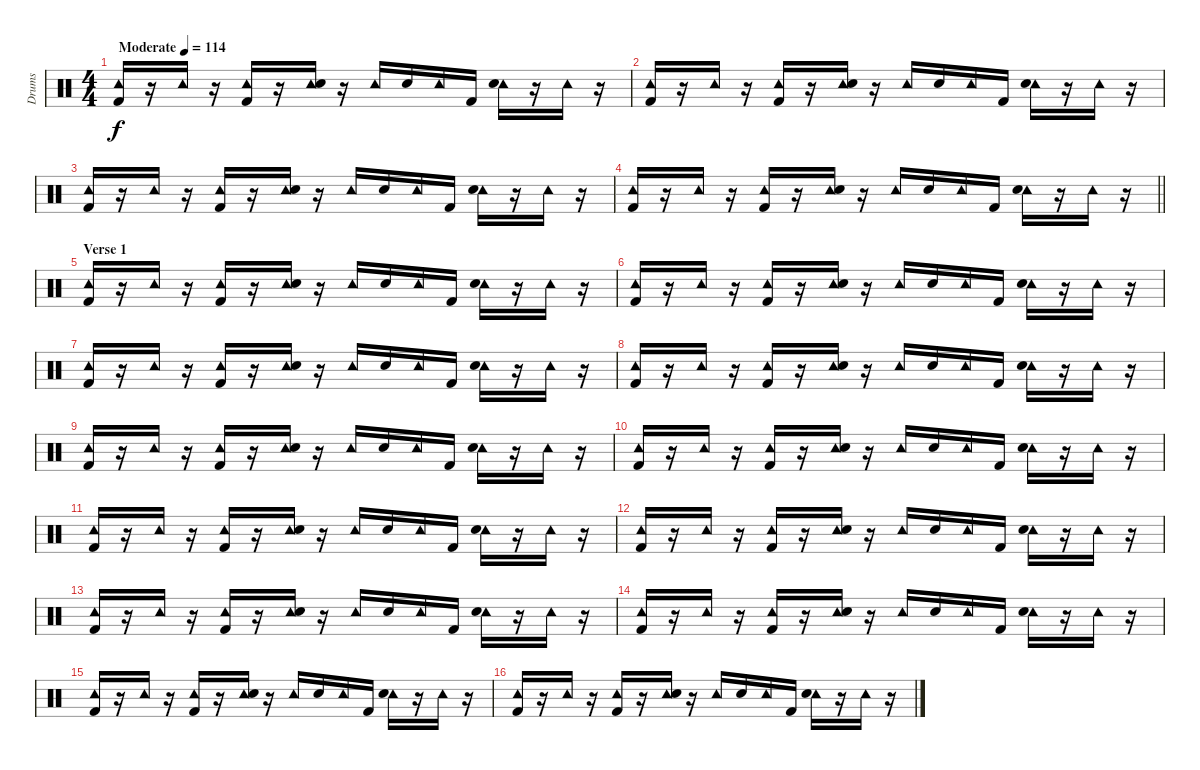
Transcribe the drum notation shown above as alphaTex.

\track ("Drums" "Drums") {instrument percussion bank 127}
\staff {score}
\articulation defaults
\ts (4 4)
\tempo (114 "Moderate")
\clef neutral
\ks c
("Tambourine (hit)" "Kick (hit) 2").16{dy f} r.16 "Tambourine (hit)".16 r.16 ("Tambourine (hit)" "Kick (hit) 2").16 r.16 ("Tambourine (hit)" "Electric Snare (hit)").16 r.16 "Tambourine (hit)".16 "Electric Snare (hit)".16 "Tambourine (hit)".16 "Kick (hit) 2".16 ("Tambourine (hit)" "Electric Snare (hit)").16 r.16 "Tambourine (hit)".16 r.16 |
("Tambourine (hit)" "Kick (hit) 2").16 r.16 "Tambourine (hit)".16 r.16 ("Tambourine (hit)" "Kick (hit) 2").16 r.16 ("Tambourine (hit)" "Electric Snare (hit)").16 r.16 "Tambourine (hit)".16 "Electric Snare (hit)".16 "Tambourine (hit)".16 "Kick (hit) 2".16 ("Tambourine (hit)" "Electric Snare (hit)").16 r.16 "Tambourine (hit)".16 r.16 |
("Tambourine (hit)" "Kick (hit) 2").16 r.16 "Tambourine (hit)".16 r.16 ("Tambourine (hit)" "Kick (hit) 2").16 r.16 ("Tambourine (hit)" "Electric Snare (hit)").16 r.16 "Tambourine (hit)".16 "Electric Snare (hit)".16 "Tambourine (hit)".16 "Kick (hit) 2".16 ("Tambourine (hit)" "Electric Snare (hit)").16 r.16 "Tambourine (hit)".16 r.16 |
\barLineRight lightlight
("Tambourine (hit)" "Kick (hit) 2").16 r.16 "Tambourine (hit)".16 r.16 ("Tambourine (hit)" "Kick (hit) 2").16 r.16 ("Tambourine (hit)" "Electric Snare (hit)").16 r.16 "Tambourine (hit)".16 "Electric Snare (hit)".16 "Tambourine (hit)".16 "Kick (hit) 2".16 ("Tambourine (hit)" "Electric Snare (hit)").16 r.16 "Tambourine (hit)".16 r.16 |
\section ("" "Verse 1")
("Tambourine (hit)" "Kick (hit) 2").16 r.16 "Tambourine (hit)".16 r.16 ("Tambourine (hit)" "Kick (hit) 2").16 r.16 ("Tambourine (hit)" "Electric Snare (hit)").16 r.16 "Tambourine (hit)".16 "Electric Snare (hit)".16 "Tambourine (hit)".16 "Kick (hit) 2".16 ("Tambourine (hit)" "Electric Snare (hit)").16 r.16 "Tambourine (hit)".16 r.16 |
("Tambourine (hit)" "Kick (hit) 2").16 r.16 "Tambourine (hit)".16 r.16 ("Tambourine (hit)" "Kick (hit) 2").16 r.16 ("Tambourine (hit)" "Electric Snare (hit)").16 r.16 "Tambourine (hit)".16 "Electric Snare (hit)".16 "Tambourine (hit)".16 "Kick (hit) 2".16 ("Tambourine (hit)" "Electric Snare (hit)").16 r.16 "Tambourine (hit)".16 r.16 |
("Tambourine (hit)" "Kick (hit) 2").16 r.16 "Tambourine (hit)".16 r.16 ("Tambourine (hit)" "Kick (hit) 2").16 r.16 ("Tambourine (hit)" "Electric Snare (hit)").16 r.16 "Tambourine (hit)".16 "Electric Snare (hit)".16 "Tambourine (hit)".16 "Kick (hit) 2".16 ("Tambourine (hit)" "Electric Snare (hit)").16 r.16 "Tambourine (hit)".16 r.16 |
("Tambourine (hit)" "Kick (hit) 2").16 r.16 "Tambourine (hit)".16 r.16 ("Tambourine (hit)" "Kick (hit) 2").16 r.16 ("Tambourine (hit)" "Electric Snare (hit)").16 r.16 "Tambourine (hit)".16 "Electric Snare (hit)".16 "Tambourine (hit)".16 "Kick (hit) 2".16 ("Tambourine (hit)" "Electric Snare (hit)").16 r.16 "Tambourine (hit)".16 r.16 |
("Tambourine (hit)" "Kick (hit) 2").16 r.16 "Tambourine (hit)".16 r.16 ("Tambourine (hit)" "Kick (hit) 2").16 r.16 ("Tambourine (hit)" "Electric Snare (hit)").16 r.16 "Tambourine (hit)".16 "Electric Snare (hit)".16 "Tambourine (hit)".16 "Kick (hit) 2".16 ("Tambourine (hit)" "Electric Snare (hit)").16 r.16 "Tambourine (hit)".16 r.16 |
("Tambourine (hit)" "Kick (hit) 2").16 r.16 "Tambourine (hit)".16 r.16 ("Tambourine (hit)" "Kick (hit) 2").16 r.16 ("Tambourine (hit)" "Electric Snare (hit)").16 r.16 "Tambourine (hit)".16 "Electric Snare (hit)".16 "Tambourine (hit)".16 "Kick (hit) 2".16 ("Tambourine (hit)" "Electric Snare (hit)").16 r.16 "Tambourine (hit)".16 r.16 |
("Tambourine (hit)" "Kick (hit) 2").16 r.16 "Tambourine (hit)".16 r.16 ("Tambourine (hit)" "Kick (hit) 2").16 r.16 ("Tambourine (hit)" "Electric Snare (hit)").16 r.16 "Tambourine (hit)".16 "Electric Snare (hit)".16 "Tambourine (hit)".16 "Kick (hit) 2".16 ("Tambourine (hit)" "Electric Snare (hit)").16 r.16 "Tambourine (hit)".16 r.16 |
("Tambourine (hit)" "Kick (hit) 2").16 r.16 "Tambourine (hit)".16 r.16 ("Tambourine (hit)" "Kick (hit) 2").16 r.16 ("Tambourine (hit)" "Electric Snare (hit)").16 r.16 "Tambourine (hit)".16 "Electric Snare (hit)".16 "Tambourine (hit)".16 "Kick (hit) 2".16 ("Tambourine (hit)" "Electric Snare (hit)").16 r.16 "Tambourine (hit)".16 r.16 |
("Tambourine (hit)" "Kick (hit) 2").16 r.16 "Tambourine (hit)".16 r.16 ("Tambourine (hit)" "Kick (hit) 2").16 r.16 ("Tambourine (hit)" "Electric Snare (hit)").16 r.16 "Tambourine (hit)".16 "Electric Snare (hit)".16 "Tambourine (hit)".16 "Kick (hit) 2".16 ("Tambourine (hit)" "Electric Snare (hit)").16 r.16 "Tambourine (hit)".16 r.16 |
("Tambourine (hit)" "Kick (hit) 2").16 r.16 "Tambourine (hit)".16 r.16 ("Tambourine (hit)" "Kick (hit) 2").16 r.16 ("Tambourine (hit)" "Electric Snare (hit)").16 r.16 "Tambourine (hit)".16 "Electric Snare (hit)".16 "Tambourine (hit)".16 "Kick (hit) 2".16 ("Tambourine (hit)" "Electric Snare (hit)").16 r.16 "Tambourine (hit)".16 r.16 |
("Tambourine (hit)" "Kick (hit) 2").16 r.16 "Tambourine (hit)".16 r.16 ("Tambourine (hit)" "Kick (hit) 2").16 r.16 ("Tambourine (hit)" "Electric Snare (hit)").16 r.16 "Tambourine (hit)".16 "Electric Snare (hit)".16 "Tambourine (hit)".16 "Kick (hit) 2".16 ("Tambourine (hit)" "Electric Snare (hit)").16 r.16 "Tambourine (hit)".16 r.16 |
("Tambourine (hit)" "Kick (hit) 2").16 r.16 "Tambourine (hit)".16 r.16 ("Tambourine (hit)" "Kick (hit) 2").16 r.16 ("Tambourine (hit)" "Electric Snare (hit)").16 r.16 "Tambourine (hit)".16 "Electric Snare (hit)".16 "Tambourine (hit)".16 "Kick (hit) 2".16 ("Tambourine (hit)" "Electric Snare (hit)").16 r.16 "Tambourine (hit)".16 r.16
